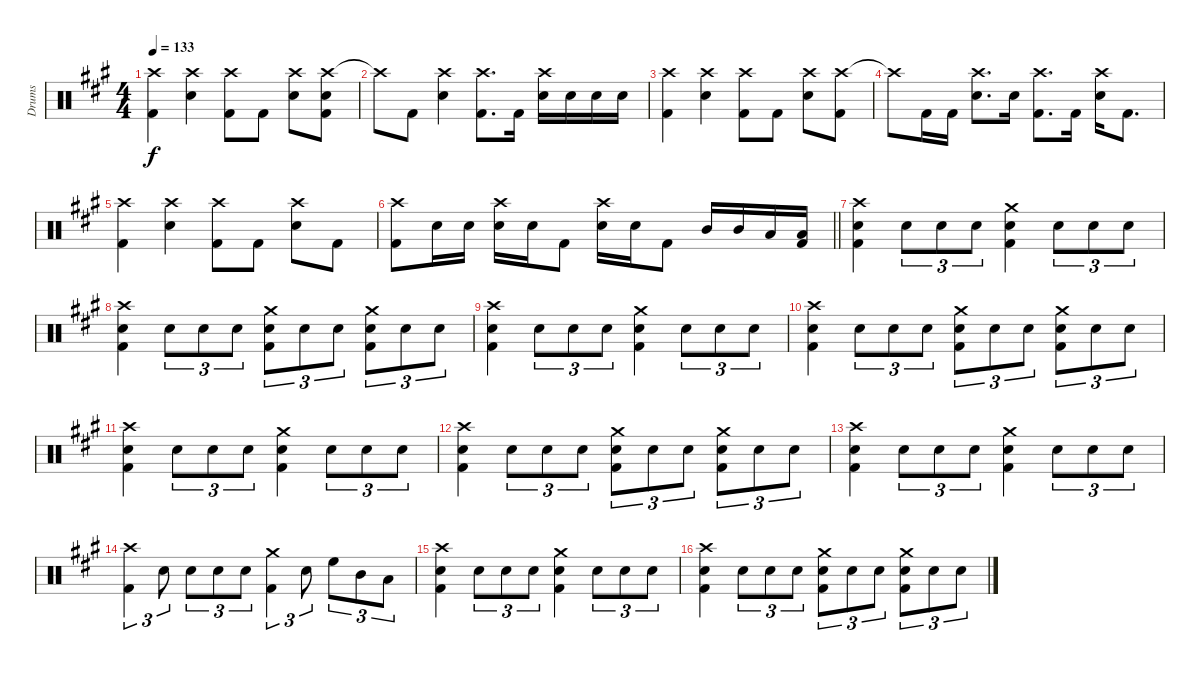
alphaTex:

\track ("Drums" "Drums") {instrument percussion}
\staff {score}
\articulation defaults
\ts (4 4)
\tempo 133
\clef neutral
\ks a
("Crash high (hit)" "Kick (hit) 2").4{dy f} ("Crash high (hit)" "Snare (hit) 2").4 ("Crash high (hit)" "Kick (hit) 2").8 "Kick (hit) 2".8 ("Crash high (hit)" "Snare (hit) 2").8 ("Crash high (hit)" "Snare (hit) 2" "Kick (hit) 2").8 |
"Crash high (hit)"{t}.8 "Kick (hit) 2".8 ("Crash high (hit)" "Snare (hit) 2").4 ("Crash high (hit)" "Kick (hit) 2").8{d} "Kick (hit) 2".16 ("Crash high (hit)" "Snare (hit) 2").16 "Snare (hit) 2".16 "Snare (hit) 2".16 "Snare (hit) 2".16 |
("Crash high (hit)" "Kick (hit) 2").4 ("Crash high (hit)" "Snare (hit) 2").4 ("Crash high (hit)" "Kick (hit) 2").8 "Kick (hit) 2".8 ("Crash high (hit)" "Snare (hit) 2").8 ("Crash high (hit)" "Kick (hit) 2").8 |
"Crash high (hit)"{t}.8 "Kick (hit) 2".16 "Kick (hit) 2".16 ("Crash high (hit)" "Snare (hit) 2").8{d} "Snare (hit) 2".16 ("Crash high (hit)" "Kick (hit) 2").8{d} "Kick (hit) 2".16 ("Crash high (hit)" "Snare (hit) 2").16 "Kick (hit) 2".8{d} |
("Crash high (hit)" "Kick (hit) 2").4 ("Crash high (hit)" "Snare (hit) 2").4 ("Crash high (hit)" "Kick (hit) 2").8 "Kick (hit) 2".8 ("Crash high (hit)" "Snare (hit) 2").8 "Kick (hit) 2".8 |
\barLineRight lightlight
("Crash high (hit)" "Kick (hit) 2").8 "Snare (hit) 2".16 "Snare (hit) 2".16 ("Crash high (hit)" "Snare (hit) 2").16 "Snare (hit) 2".16 "Kick (hit) 2".8 ("Crash high (hit)" "Snare (hit) 2").16 "Snare (hit) 2".16 "Kick (hit) 2".8 "Mid Tom (hit)".16 "Mid Tom (hit)".16 "Low Tom (hit)".16 ("Low Tom (hit)" "Kick (hit) 2").16 |
("Crash high (hit)" "Snare (hit) 2" "Kick (hit) 2").4 "Snare (hit) 2".8{tu (3 2)} "Snare (hit) 2".8{tu (3 2)} "Snare (hit) 2".8{tu (3 2)} ("Crash medium (hit)" "Snare (hit) 2" "Kick (hit) 2").4 "Snare (hit) 2".8{tu (3 2)} "Snare (hit) 2".8{tu (3 2)} "Snare (hit) 2".8{tu (3 2)} |
("Crash high (hit)" "Snare (hit) 2" "Kick (hit) 2").4 "Snare (hit) 2".8{tu (3 2)} "Snare (hit) 2".8{tu (3 2)} "Snare (hit) 2".8{tu (3 2)} ("Crash medium (hit)" "Snare (hit) 2" "Kick (hit) 2").8{tu (3 2)} "Snare (hit) 2".8{tu (3 2)} "Snare (hit) 2".8{tu (3 2)} ("Crash medium (hit)" "Snare (hit) 2" "Kick (hit) 2").8{tu (3 2)} "Snare (hit) 2".8{tu (3 2)} "Snare (hit) 2".8{tu (3 2)} |
("Crash high (hit)" "Snare (hit) 2" "Kick (hit) 2").4 "Snare (hit) 2".8{tu (3 2)} "Snare (hit) 2".8{tu (3 2)} "Snare (hit) 2".8{tu (3 2)} ("Crash medium (hit)" "Snare (hit) 2" "Kick (hit) 2").4 "Snare (hit) 2".8{tu (3 2)} "Snare (hit) 2".8{tu (3 2)} "Snare (hit) 2".8{tu (3 2)} |
("Crash high (hit)" "Snare (hit) 2" "Kick (hit) 2").4 "Snare (hit) 2".8{tu (3 2)} "Snare (hit) 2".8{tu (3 2)} "Snare (hit) 2".8{tu (3 2)} ("Crash medium (hit)" "Snare (hit) 2" "Kick (hit) 2").8{tu (3 2)} "Snare (hit) 2".8{tu (3 2)} "Snare (hit) 2".8{tu (3 2)} ("Crash medium (hit)" "Snare (hit) 2" "Kick (hit) 2").8{tu (3 2)} "Snare (hit) 2".8{tu (3 2)} "Snare (hit) 2".8{tu (3 2)} |
("Crash high (hit)" "Snare (hit) 2" "Kick (hit) 2").4 "Snare (hit) 2".8{tu (3 2)} "Snare (hit) 2".8{tu (3 2)} "Snare (hit) 2".8{tu (3 2)} ("Crash medium (hit)" "Snare (hit) 2" "Kick (hit) 2").4 "Snare (hit) 2".8{tu (3 2)} "Snare (hit) 2".8{tu (3 2)} "Snare (hit) 2".8{tu (3 2)} |
("Crash high (hit)" "Snare (hit) 2" "Kick (hit) 2").4 "Snare (hit) 2".8{tu (3 2)} "Snare (hit) 2".8{tu (3 2)} "Snare (hit) 2".8{tu (3 2)} ("Crash medium (hit)" "Snare (hit) 2" "Kick (hit) 2").8{tu (3 2)} "Snare (hit) 2".8{tu (3 2)} "Snare (hit) 2".8{tu (3 2)} ("Crash medium (hit)" "Snare (hit) 2" "Kick (hit) 2").8{tu (3 2)} "Snare (hit) 2".8{tu (3 2)} "Snare (hit) 2".8{tu (3 2)} |
("Crash high (hit)" "Snare (hit) 2" "Kick (hit) 2").4 "Snare (hit) 2".8{tu (3 2)} "Snare (hit) 2".8{tu (3 2)} "Snare (hit) 2".8{tu (3 2)} ("Crash medium (hit)" "Snare (hit) 2" "Kick (hit) 2").4 "Snare (hit) 2".8{tu (3 2)} "Snare (hit) 2".8{tu (3 2)} "Snare (hit) 2".8{tu (3 2)} |
("Crash high (hit)" "Kick (hit) 2").4{tu (3 2)} "Snare (hit) 2".8{tu (3 2)} "Snare (hit) 2".8{tu (3 2)} "Snare (hit) 2".8{tu (3 2)} "Snare (hit) 2".8{tu (3 2)} ("Crash medium (hit)" "Kick (hit) 2").4{tu (3 2)} "Snare (hit) 2".8{tu (3 2)} "High Floor Tom (hit)".8{tu (3 2)} "Mid Tom (hit)".8{tu (3 2)} "Low Tom (hit)".8{tu (3 2)} |
("Crash high (hit)" "Snare (hit) 2" "Kick (hit) 2").4 "Snare (hit) 2".8{tu (3 2)} "Snare (hit) 2".8{tu (3 2)} "Snare (hit) 2".8{tu (3 2)} ("Crash medium (hit)" "Snare (hit) 2" "Kick (hit) 2").4 "Snare (hit) 2".8{tu (3 2)} "Snare (hit) 2".8{tu (3 2)} "Snare (hit) 2".8{tu (3 2)} |
("Crash high (hit)" "Snare (hit) 2" "Kick (hit) 2").4 "Snare (hit) 2".8{tu (3 2)} "Snare (hit) 2".8{tu (3 2)} "Snare (hit) 2".8{tu (3 2)} ("Crash medium (hit)" "Snare (hit) 2" "Kick (hit) 2").8{tu (3 2)} "Snare (hit) 2".8{tu (3 2)} "Snare (hit) 2".8{tu (3 2)} ("Crash medium (hit)" "Snare (hit) 2" "Kick (hit) 2").8{tu (3 2)} "Snare (hit) 2".8{tu (3 2)} "Snare (hit) 2".8{tu (3 2)}
